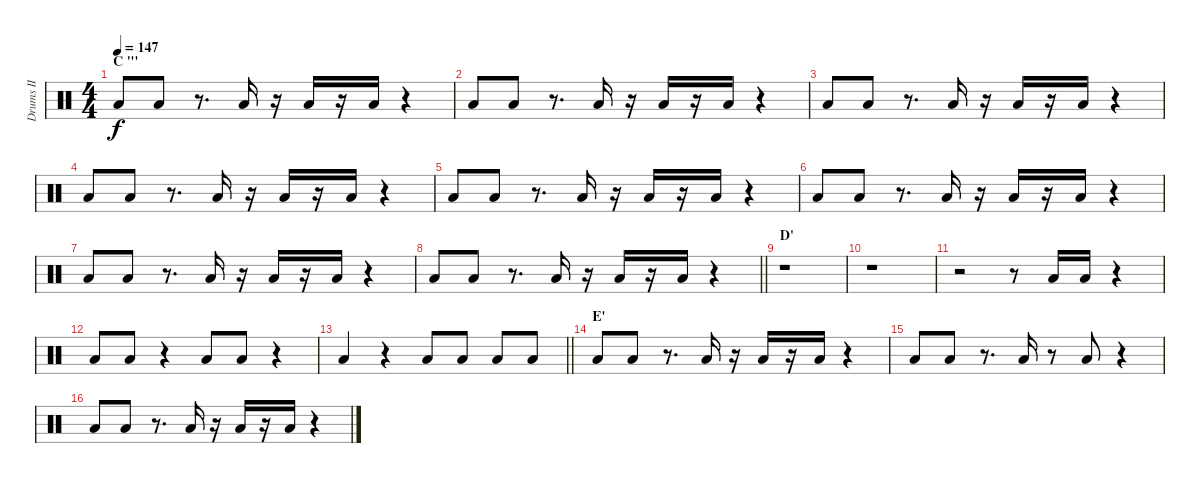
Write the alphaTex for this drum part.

\track ("Drums II" "Drums II") {instrument percussion}
\staff {score}
\articulation defaults
\ts (4 4)
\section ("" "C \"'")
\tempo 147
\clef neutral
\ks c "Low Tom (hit)".8{dy f} "Low Tom (hit)".8
r.8{d} "Low Tom (hit)".16 r.16 "Low Tom (hit)".16 r.16 "Low Tom (hit)".16 r.4 |
"Low Tom (hit)".8 "Low Tom (hit)".8 r.8{d} "Low Tom (hit)".16 r.16 "Low Tom (hit)".16 r.16 "Low Tom (hit)".16 r.4 |
"Low Tom (hit)".8 "Low Tom (hit)".8 r.8{d} "Low Tom (hit)".16 r.16 "Low Tom (hit)".16 r.16 "Low Tom (hit)".16 r.4 |
"Low Tom (hit)".8 "Low Tom (hit)".8 r.8{d} "Low Tom (hit)".16 r.16 "Low Tom (hit)".16 r.16 "Low Tom (hit)".16 r.4 |
"Low Tom (hit)".8 "Low Tom (hit)".8 r.8{d} "Low Tom (hit)".16 r.16 "Low Tom (hit)".16 r.16 "Low Tom (hit)".16 r.4 |
"Low Tom (hit)".8 "Low Tom (hit)".8 r.8{d} "Low Tom (hit)".16 r.16 "Low Tom (hit)".16 r.16 "Low Tom (hit)".16 r.4 |
"Low Tom (hit)".8 "Low Tom (hit)".8 r.8{d} "Low Tom (hit)".16 r.16 "Low Tom (hit)".16 r.16 "Low Tom (hit)".16 r.4 |
\barLineRight lightlight "Low Tom (hit)".8 "Low Tom (hit)".8
r.8{d} "Low Tom (hit)".16 r.16 "Low Tom (hit)".16 r.16 "Low Tom (hit)".16 r.4 |
\section ("" "D'")
r.1 |
r.1 |
r.2 r.8 "Low Tom (hit)".16 "Low Tom (hit)".16 r.4 |
"Low Tom (hit)".8 "Low Tom (hit)".8 r.4 "Low Tom (hit)".8 "Low Tom (hit)".8 r.4 |
\barLineRight lightlight "Low Tom (hit)".4
r.4 "Low Tom (hit)".8 "Low Tom (hit)".8 "Low Tom (hit)".8 "Low Tom (hit)".8 |
\section ("" "E'")
"Low Tom (hit)".8 "Low Tom (hit)".8 r.8{d} "Low Tom (hit)".16 r.16 "Low Tom (hit)".16 r.16 "Low Tom (hit)".16 r.4 |
"Low Tom (hit)".8 "Low Tom (hit)".8 r.8{d} "Low Tom (hit)".16 r.8 "Low Tom (hit)".8 r.4 |
"Low Tom (hit)".8 "Low Tom (hit)".8 r.8{d} "Low Tom (hit)".16 r.16 "Low Tom (hit)".16 r.16 "Low Tom (hit)".16 r.4
